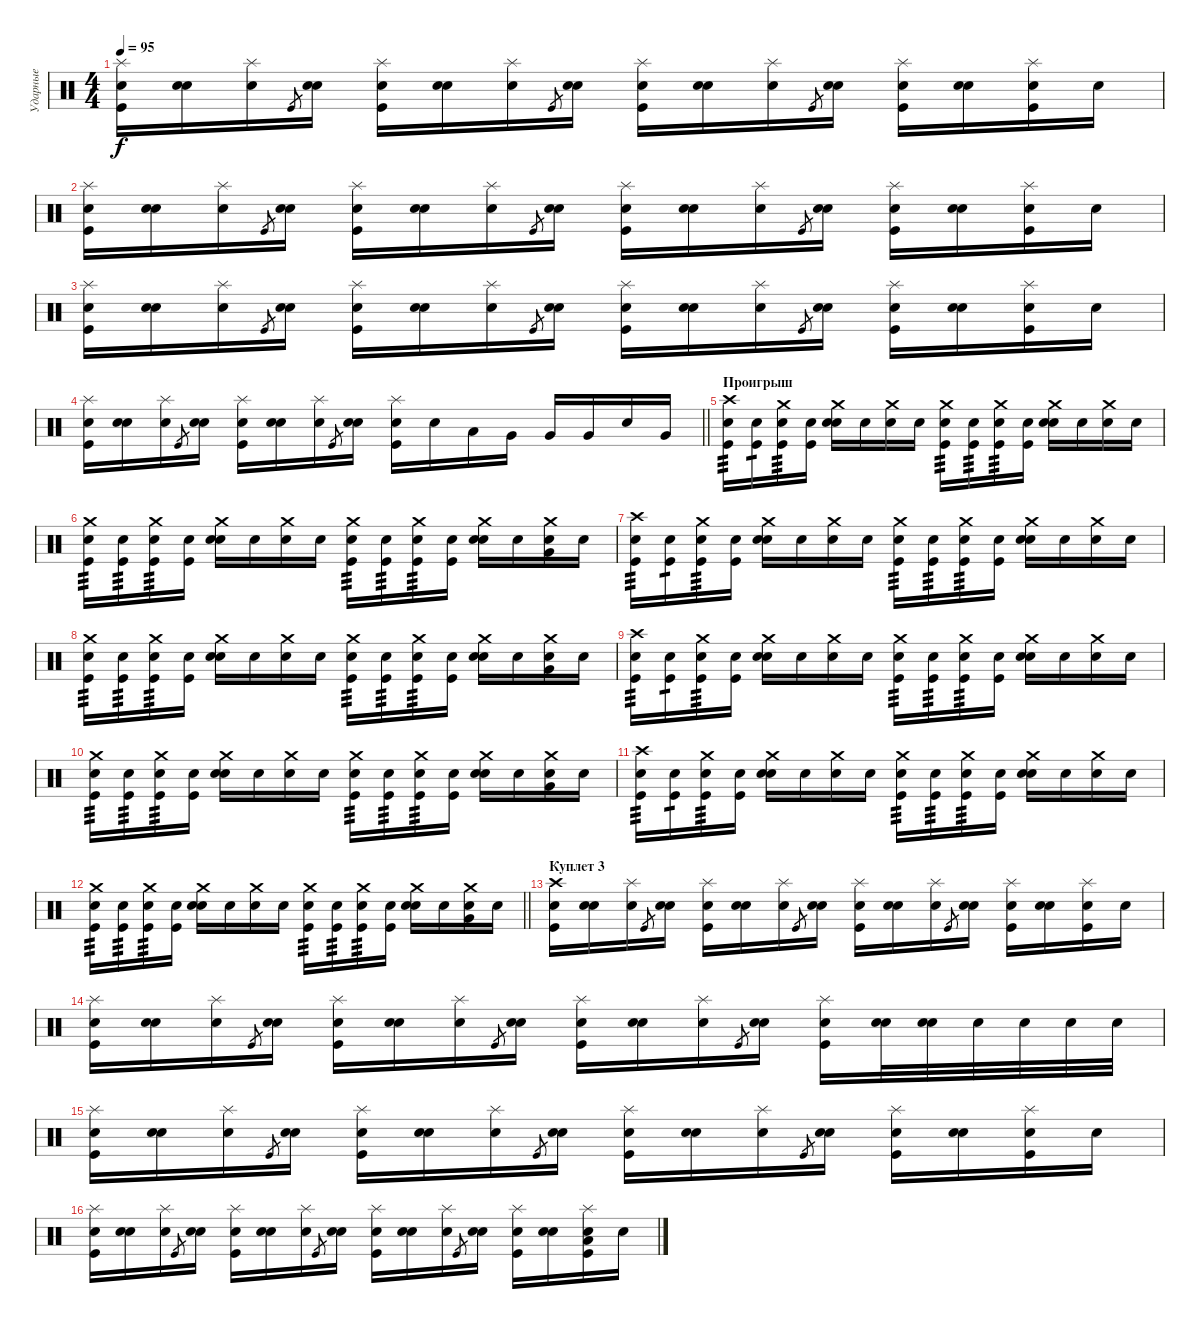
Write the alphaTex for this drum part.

\track ("Ударные" "Ударные") {instrument percussion}
\staff {score}
\articulation defaults
\ts (4 4)
\tempo 95
\clef neutral
\ks c
("Splash (hit)" "Kick (hit)" "Snare (hit)"{x}).16{dy f} ("Electric Snare (hit)" "Snare (hit)"{x}).16 ("Splash (hit)" "Snare (hit)"{x}).16 "Kick (hit)".8{gr} ("Electric Snare (hit)" "Snare (hit)"{x}).16 ("Splash (hit)" "Kick (hit)" "Snare (hit)"{x}).16 ("Electric Snare (hit)" "Snare (hit)"{x}).16 ("Splash (hit)" "Snare (hit)"{x}).16 "Kick (hit)".8{gr} ("Electric Snare (hit)" "Snare (hit)"{x}).16 ("Splash (hit)" "Kick (hit)" "Snare (hit)"{x}).16 ("Electric Snare (hit)" "Snare (hit)"{x}).16 ("Splash (hit)" "Snare (hit)"{x}).16 "Kick (hit)".8{gr} ("Electric Snare (hit)" "Snare (hit)"{x}).16 ("Splash (hit)" "Kick (hit)" "Snare (hit)"{x}).16 ("Electric Snare (hit)" "Snare (hit)"{x}).16 ("Splash (hit)" "Kick (hit)" "Snare (hit)"{x}).16 "Electric Snare (hit)".16 |
("Splash (hit)" "Kick (hit)" "Snare (hit)"{x}).16 ("Electric Snare (hit)" "Snare (hit)"{x}).16 ("Splash (hit)" "Snare (hit)"{x}).16 "Kick (hit)".8{gr} ("Electric Snare (hit)" "Snare (hit)"{x}).16 ("Splash (hit)" "Kick (hit)" "Snare (hit)"{x}).16 ("Electric Snare (hit)" "Snare (hit)"{x}).16 ("Splash (hit)" "Snare (hit)"{x}).16 "Kick (hit)".8{gr} ("Electric Snare (hit)" "Snare (hit)"{x}).16 ("Splash (hit)" "Kick (hit)" "Snare (hit)"{x}).16 ("Electric Snare (hit)" "Snare (hit)"{x}).16 ("Splash (hit)" "Snare (hit)"{x}).16 "Kick (hit)".8{gr} ("Electric Snare (hit)" "Snare (hit)"{x}).16 ("Splash (hit)" "Kick (hit)" "Snare (hit)"{x}).16 ("Electric Snare (hit)" "Snare (hit)"{x}).16 ("Splash (hit)" "Kick (hit)" "Snare (hit)"{x}).16 "Electric Snare (hit)".16 |
("Splash (hit)" "Kick (hit)" "Snare (hit)"{x}).16 ("Electric Snare (hit)" "Snare (hit)"{x}).16 ("Splash (hit)" "Snare (hit)"{x}).16 "Kick (hit)".8{gr} ("Electric Snare (hit)" "Snare (hit)"{x}).16 ("Splash (hit)" "Kick (hit)" "Snare (hit)"{x}).16 ("Electric Snare (hit)" "Snare (hit)"{x}).16 ("Splash (hit)" "Snare (hit)"{x}).16 "Kick (hit)".8{gr} ("Electric Snare (hit)" "Snare (hit)"{x}).16 ("Splash (hit)" "Kick (hit)" "Snare (hit)"{x}).16 ("Electric Snare (hit)" "Snare (hit)"{x}).16 ("Splash (hit)" "Snare (hit)"{x}).16 "Kick (hit)".8{gr} ("Electric Snare (hit)" "Snare (hit)"{x}).16 ("Splash (hit)" "Kick (hit)" "Snare (hit)"{x}).16 ("Electric Snare (hit)" "Snare (hit)"{x}).16 ("Splash (hit)" "Kick (hit)" "Snare (hit)"{x}).16 "Electric Snare (hit)".16 |
\barLineRight lightlight
("Splash (hit)" "Kick (hit)" "Snare (hit)"{x}).16 ("Electric Snare (hit)" "Snare (hit)"{x}).16 ("Splash (hit)" "Snare (hit)"{x}).16 "Kick (hit)".8{gr} ("Electric Snare (hit)" "Snare (hit)"{x}).16 ("Splash (hit)" "Kick (hit)" "Snare (hit)"{x}).16 ("Electric Snare (hit)" "Snare (hit)"{x}).16 ("Splash (hit)" "Snare (hit)"{x}).16 "Kick (hit)".8{gr} ("Electric Snare (hit)" "Snare (hit)"{x}).16 ("Splash (hit)" "Kick (hit)" "Snare (hit)"{x}).16 "Electric Snare (hit)".16 "Low Tom (hit)".16 "Very Low Tom (hit)".16 "Very Low Tom (hit)".16 "Very Low Tom (hit)".16 "Electric Snare (hit)".16 "Very Low Tom (hit)".16 |
\section ("" "Проигрыш")
("Crash high (hit)" "Kick (hit)" "Snare (hit)"{x}).16{tp 3} ("Kick (hit)" "Snare (hit)"{x}).16{tp 1} ("Crash medium (hit)" "Kick (hit)" "Snare (hit)"{x}).16{tp 3} ("Kick (hit)" "Snare (hit)"{x}).16 ("Crash medium (hit)" "Electric Snare (hit)" "Snare (hit)"{x}).16 "Snare (hit)"{x}.16 ("Crash medium (hit)" "Snare (hit)"{x}).16 "Snare (hit)"{x}.16 ("Crash medium (hit)" "Kick (hit)" "Snare (hit)"{x}).16{tp 3} ("Kick (hit)" "Snare (hit)"{x}).16{tp 3} ("Crash medium (hit)" "Kick (hit)" "Snare (hit)"{x}).16{tp 3} ("Kick (hit)" "Snare (hit)"{x}).16 ("Crash medium (hit)" "Electric Snare (hit)" "Snare (hit)"{x}).16 "Snare (hit)"{x}.16 ("Crash medium (hit)" "Snare (hit)"{x}).16 "Snare (hit)"{x}.16 |
("Crash medium (hit)" "Kick (hit)" "Snare (hit)"{x}).16{tp 3} ("Kick (hit)" "Snare (hit)"{x}).16{tp 3} ("Crash medium (hit)" "Kick (hit)" "Snare (hit)"{x}).16{tp 3} ("Kick (hit)" "Snare (hit)"{x}).16 ("Crash medium (hit)" "Electric Snare (hit)" "Snare (hit)"{x}).16 "Snare (hit)"{x}.16 ("Crash medium (hit)" "Snare (hit)"{x}).16 "Snare (hit)"{x}.16 ("Crash medium (hit)" "Kick (hit)" "Snare (hit)"{x}).16{tp 3} ("Kick (hit)" "Snare (hit)"{x}).16{tp 3} ("Crash medium (hit)" "Kick (hit)" "Snare (hit)"{x}).16{tp 3} ("Kick (hit)" "Snare (hit)"{x}).16 ("Crash medium (hit)" "Electric Snare (hit)" "Snare (hit)"{x}).16 "Snare (hit)"{x}.16 ("Crash medium (hit)" "Very Low Tom (hit)" "Snare (hit)"{x}).16 "Snare (hit)"{x}.16 |
("Crash high (hit)" "Kick (hit)" "Snare (hit)"{x}).16{tp 3} ("Kick (hit)" "Snare (hit)"{x}).16{tp 1} ("Crash medium (hit)" "Kick (hit)" "Snare (hit)"{x}).16{tp 3} ("Kick (hit)" "Snare (hit)"{x}).16 ("Crash medium (hit)" "Electric Snare (hit)" "Snare (hit)"{x}).16 "Snare (hit)"{x}.16 ("Crash medium (hit)" "Snare (hit)"{x}).16 "Snare (hit)"{x}.16 ("Crash medium (hit)" "Kick (hit)" "Snare (hit)"{x}).16{tp 3} ("Kick (hit)" "Snare (hit)"{x}).16{tp 3} ("Crash medium (hit)" "Kick (hit)" "Snare (hit)"{x}).16{tp 3} ("Kick (hit)" "Snare (hit)"{x}).16 ("Crash medium (hit)" "Electric Snare (hit)" "Snare (hit)"{x}).16 "Snare (hit)"{x}.16 ("Crash medium (hit)" "Snare (hit)"{x}).16 "Snare (hit)"{x}.16 |
("Crash medium (hit)" "Kick (hit)" "Snare (hit)"{x}).16{tp 3} ("Kick (hit)" "Snare (hit)"{x}).16{tp 3} ("Crash medium (hit)" "Kick (hit)" "Snare (hit)"{x}).16{tp 3} ("Kick (hit)" "Snare (hit)"{x}).16 ("Crash medium (hit)" "Electric Snare (hit)" "Snare (hit)"{x}).16 "Snare (hit)"{x}.16 ("Crash medium (hit)" "Snare (hit)"{x}).16 "Snare (hit)"{x}.16 ("Crash medium (hit)" "Kick (hit)" "Snare (hit)"{x}).16{tp 3} ("Kick (hit)" "Snare (hit)"{x}).16{tp 3} ("Crash medium (hit)" "Kick (hit)" "Snare (hit)"{x}).16{tp 3} ("Kick (hit)" "Snare (hit)"{x}).16 ("Crash medium (hit)" "Electric Snare (hit)" "Snare (hit)"{x}).16 "Snare (hit)"{x}.16 ("Crash medium (hit)" "Very Low Tom (hit)" "Snare (hit)"{x}).16 "Snare (hit)"{x}.16 |
("Crash high (hit)" "Kick (hit)" "Snare (hit)"{x}).16{tp 3} ("Kick (hit)" "Snare (hit)"{x}).16{tp 1} ("Crash medium (hit)" "Kick (hit)" "Snare (hit)"{x}).16{tp 3} ("Kick (hit)" "Snare (hit)"{x}).16 ("Crash medium (hit)" "Electric Snare (hit)" "Snare (hit)"{x}).16 "Snare (hit)"{x}.16 ("Crash medium (hit)" "Snare (hit)"{x}).16 "Snare (hit)"{x}.16 ("Crash medium (hit)" "Kick (hit)" "Snare (hit)"{x}).16{tp 3} ("Kick (hit)" "Snare (hit)"{x}).16{tp 3} ("Crash medium (hit)" "Kick (hit)" "Snare (hit)"{x}).16{tp 3} ("Kick (hit)" "Snare (hit)"{x}).16 ("Crash medium (hit)" "Electric Snare (hit)" "Snare (hit)"{x}).16 "Snare (hit)"{x}.16 ("Crash medium (hit)" "Snare (hit)"{x}).16 "Snare (hit)"{x}.16 |
("Crash medium (hit)" "Kick (hit)" "Snare (hit)"{x}).16{tp 3} ("Kick (hit)" "Snare (hit)"{x}).16{tp 3} ("Crash medium (hit)" "Kick (hit)" "Snare (hit)"{x}).16{tp 3} ("Kick (hit)" "Snare (hit)"{x}).16 ("Crash medium (hit)" "Electric Snare (hit)" "Snare (hit)"{x}).16 "Snare (hit)"{x}.16 ("Crash medium (hit)" "Snare (hit)"{x}).16 "Snare (hit)"{x}.16 ("Crash medium (hit)" "Kick (hit)" "Snare (hit)"{x}).16{tp 3} ("Kick (hit)" "Snare (hit)"{x}).16{tp 3} ("Crash medium (hit)" "Kick (hit)" "Snare (hit)"{x}).16{tp 3} ("Kick (hit)" "Snare (hit)"{x}).16 ("Crash medium (hit)" "Electric Snare (hit)" "Snare (hit)"{x}).16 "Snare (hit)"{x}.16 ("Crash medium (hit)" "Very Low Tom (hit)" "Snare (hit)"{x}).16 "Snare (hit)"{x}.16 |
("Crash high (hit)" "Kick (hit)" "Snare (hit)"{x}).16{tp 3} ("Kick (hit)" "Snare (hit)"{x}).16{tp 1} ("Crash medium (hit)" "Kick (hit)" "Snare (hit)"{x}).16{tp 3} ("Kick (hit)" "Snare (hit)"{x}).16 ("Crash medium (hit)" "Electric Snare (hit)" "Snare (hit)"{x}).16 "Snare (hit)"{x}.16 ("Crash medium (hit)" "Snare (hit)"{x}).16 "Snare (hit)"{x}.16 ("Crash medium (hit)" "Kick (hit)" "Snare (hit)"{x}).16{tp 3} ("Kick (hit)" "Snare (hit)"{x}).16{tp 3} ("Crash medium (hit)" "Kick (hit)" "Snare (hit)"{x}).16{tp 3} ("Kick (hit)" "Snare (hit)"{x}).16 ("Crash medium (hit)" "Electric Snare (hit)" "Snare (hit)"{x}).16 "Snare (hit)"{x}.16 ("Crash medium (hit)" "Snare (hit)"{x}).16 "Snare (hit)"{x}.16 |
\barLineRight lightlight
("Crash medium (hit)" "Kick (hit)" "Snare (hit)"{x}).16{tp 3} ("Kick (hit)" "Snare (hit)"{x}).16{tp 3} ("Crash medium (hit)" "Kick (hit)" "Snare (hit)"{x}).16{tp 3} ("Kick (hit)" "Snare (hit)"{x}).16 ("Crash medium (hit)" "Electric Snare (hit)" "Snare (hit)"{x}).16 "Snare (hit)"{x}.16 ("Crash medium (hit)" "Snare (hit)"{x}).16 "Snare (hit)"{x}.16 ("Crash medium (hit)" "Kick (hit)" "Snare (hit)"{x}).16{tp 3} ("Kick (hit)" "Snare (hit)"{x}).16{tp 3} ("Crash medium (hit)" "Kick (hit)" "Snare (hit)"{x}).16{tp 3} ("Kick (hit)" "Snare (hit)"{x}).16 ("Crash medium (hit)" "Electric Snare (hit)" "Snare (hit)"{x}).16 "Snare (hit)"{x}.16 ("Crash medium (hit)" "Very Low Tom (hit)" "Snare (hit)"{x}).16 "Snare (hit)"{x}.16 |
\section ("" "Куплет 3")
("Crash high (hit)" "Kick (hit)" "Snare (hit)"{x}).16 ("Electric Snare (hit)" "Snare (hit)"{x}).16 ("Splash (hit)" "Snare (hit)"{x}).16 "Kick (hit)".8{gr} ("Electric Snare (hit)" "Snare (hit)"{x}).16 ("Splash (hit)" "Kick (hit)" "Snare (hit)"{x}).16 ("Electric Snare (hit)" "Snare (hit)"{x}).16 ("Splash (hit)" "Snare (hit)"{x}).16 "Kick (hit)".8{gr} ("Electric Snare (hit)" "Snare (hit)"{x}).16 ("Splash (hit)" "Kick (hit)" "Snare (hit)"{x}).16 ("Electric Snare (hit)" "Snare (hit)"{x}).16 ("Splash (hit)" "Snare (hit)"{x}).16 "Kick (hit)".8{gr} ("Electric Snare (hit)" "Snare (hit)"{x}).16 ("Splash (hit)" "Kick (hit)" "Snare (hit)"{x}).16 ("Electric Snare (hit)" "Snare (hit)"{x}).16 ("Splash (hit)" "Kick (hit)" "Snare (hit)"{x}).16 "Electric Snare (hit)".16 |
("Splash (hit)" "Kick (hit)" "Snare (hit)"{x}).16 ("Electric Snare (hit)" "Snare (hit)"{x}).16 ("Splash (hit)" "Snare (hit)"{x}).16 "Kick (hit)".8{gr} ("Electric Snare (hit)" "Snare (hit)"{x}).16 ("Splash (hit)" "Kick (hit)" "Snare (hit)"{x}).16 ("Electric Snare (hit)" "Snare (hit)"{x}).16 ("Splash (hit)" "Snare (hit)"{x}).16 "Kick (hit)".8{gr} ("Electric Snare (hit)" "Snare (hit)"{x}).16 ("Splash (hit)" "Kick (hit)" "Snare (hit)"{x}).16 ("Electric Snare (hit)" "Snare (hit)"{x}).16 ("Splash (hit)" "Snare (hit)"{x}).16 "Kick (hit)".8{gr} ("Electric Snare (hit)" "Snare (hit)"{x}).16 ("Splash (hit)" "Kick (hit)" "Snare (hit)"{x}).16 ("Electric Snare (hit)" "Snare (hit)"{x}).32 ("Electric Snare (hit)" "Snare (hit)"{x}).32 "Electric Snare (hit)".32 "Electric Snare (hit)".32 "Electric Snare (hit)".32 "Electric Snare (hit)".32 |
("Splash (hit)" "Kick (hit)" "Snare (hit)"{x}).16 ("Electric Snare (hit)" "Snare (hit)"{x}).16 ("Splash (hit)" "Snare (hit)"{x}).16 "Kick (hit)".8{gr} ("Electric Snare (hit)" "Snare (hit)"{x}).16 ("Splash (hit)" "Kick (hit)" "Snare (hit)"{x}).16 ("Electric Snare (hit)" "Snare (hit)"{x}).16 ("Splash (hit)" "Snare (hit)"{x}).16 "Kick (hit)".8{gr} ("Electric Snare (hit)" "Snare (hit)"{x}).16 ("Splash (hit)" "Kick (hit)" "Snare (hit)"{x}).16 ("Electric Snare (hit)" "Snare (hit)"{x}).16 ("Splash (hit)" "Snare (hit)"{x}).16 "Kick (hit)".8{gr} ("Electric Snare (hit)" "Snare (hit)"{x}).16 ("Splash (hit)" "Kick (hit)" "Snare (hit)"{x}).16 ("Electric Snare (hit)" "Snare (hit)"{x}).16 ("Splash (hit)" "Kick (hit)" "Snare (hit)"{x}).16 "Electric Snare (hit)".16 |
("Splash (hit)" "Kick (hit)" "Snare (hit)"{x}).16 ("Electric Snare (hit)" "Snare (hit)"{x}).16 ("Splash (hit)" "Snare (hit)"{x}).16 "Kick (hit)".8{gr} ("Electric Snare (hit)" "Snare (hit)"{x}).16 ("Splash (hit)" "Kick (hit)" "Snare (hit)"{x}).16 ("Electric Snare (hit)" "Snare (hit)"{x}).16 ("Splash (hit)" "Snare (hit)"{x}).16 "Kick (hit)".8{gr} ("Electric Snare (hit)" "Snare (hit)"{x}).16 ("Splash (hit)" "Kick (hit)" "Snare (hit)"{x}).16 ("Electric Snare (hit)" "Snare (hit)"{x}).16 ("Splash (hit)" "Snare (hit)"{x}).16 "Kick (hit)".8{gr} ("Electric Snare (hit)" "Snare (hit)"{x}).16 ("Splash (hit)" "Kick (hit)" "Snare (hit)"{x}).16 ("Electric Snare (hit)" "Snare (hit)"{x}).16 ("Splash (hit)" "Low Tom (hit)" "Kick (hit)" "Snare (hit)"{x}).16 "Snare (hit)"{x}.16
